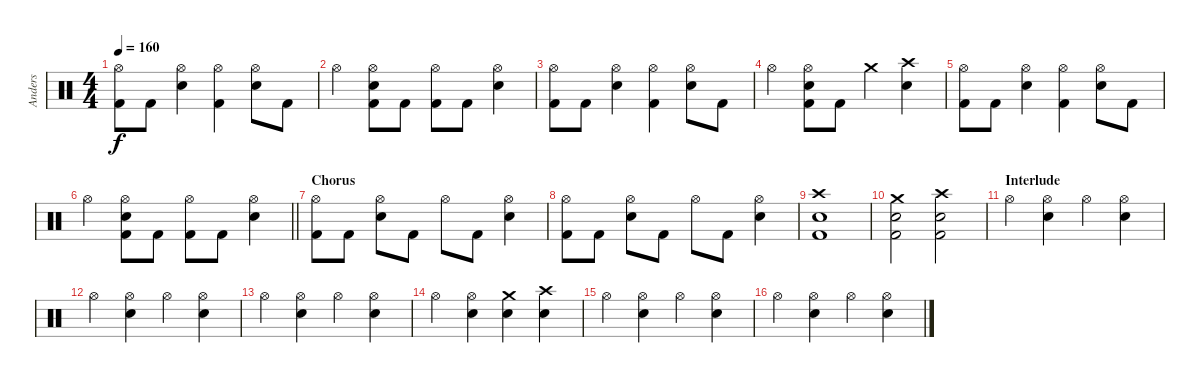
\track ("Anders" "Anders") {instrument percussion}
\staff {score}
\articulation defaults
\ts (4 4)
\tempo 160
\clef neutral
\ks c
("Hi-Hat (open)" "Kick (hit) 2").8{dy f} "Kick (hit) 2".8 ("Hi-Hat (open)" "Snare (hit) 2").4 ("Hi-Hat (open)" "Kick (hit) 2").4 ("Hi-Hat (open)" "Snare (hit) 2").8 "Kick (hit) 2".8 |
"Hi-Hat (open)".4 ("Hi-Hat (open)" "Snare (hit) 2" "Kick (hit) 2").8 "Kick (hit) 2".8 ("Hi-Hat (open)" "Kick (hit) 2").8 "Kick (hit) 2".8 ("Hi-Hat (open)" "Snare (hit) 2").4 |
("Hi-Hat (open)" "Kick (hit) 2").8 "Kick (hit) 2".8 ("Hi-Hat (open)" "Snare (hit) 2").4 ("Hi-Hat (open)" "Kick (hit) 2").4 ("Hi-Hat (open)" "Snare (hit) 2").8 "Kick (hit) 2".8 |
"Hi-Hat (open)".4 ("Hi-Hat (open)" "Snare (hit) 2" "Kick (hit) 2").8 "Kick (hit) 2".8 "Crash medium (hit)".4 ("Crash high (hit)" "Snare (hit) 2").4 |
("Hi-Hat (open)" "Kick (hit) 2").8 "Kick (hit) 2".8 ("Hi-Hat (open)" "Snare (hit) 2").4 ("Hi-Hat (open)" "Kick (hit) 2").4 ("Hi-Hat (open)" "Snare (hit) 2").8 "Kick (hit) 2".8 |
\barLineRight lightlight "Hi-Hat (open)".4
("Hi-Hat (open)" "Snare (hit) 2" "Kick (hit) 2").8 "Kick (hit) 2".8 ("Hi-Hat (open)" "Kick (hit) 2").8 "Kick (hit) 2".8 ("Hi-Hat (open)" "Snare (hit) 2").4 |
\section ("" "Chorus")
("Hi-Hat (open)" "Kick (hit) 2").8 "Kick (hit) 2".8 ("Hi-Hat (open)" "Snare (hit) 2").8 "Kick (hit) 2".8 "Hi-Hat (open)".8 "Kick (hit) 2".8 ("Hi-Hat (open)" "Snare (hit) 2").4 |
("Hi-Hat (open)" "Kick (hit) 2").8 "Kick (hit) 2".8 ("Hi-Hat (open)" "Snare (hit) 2").8 "Kick (hit) 2".8 "Hi-Hat (open)".8 "Kick (hit) 2".8 ("Hi-Hat (open)" "Snare (hit) 2").4 |
("Crash high (hit)" "Snare (hit) 2" "Kick (hit) 2").1 |
("Crash medium (hit)" "Snare (hit) 2" "Kick (hit) 2").2 ("Crash high (hit)" "Snare (hit) 2" "Kick (hit) 2").2 |
\section ("" "Interlude")
"Hi-Hat (open)".4 ("Hi-Hat (open)" "Snare (hit) 2").4 "Hi-Hat (open)".4 ("Hi-Hat (open)" "Snare (hit) 2").4 |
"Hi-Hat (open)".4 ("Hi-Hat (open)" "Snare (hit) 2").4 "Hi-Hat (open)".4 ("Hi-Hat (open)" "Snare (hit) 2").4 |
"Hi-Hat (open)".4 ("Hi-Hat (open)" "Snare (hit) 2").4 "Hi-Hat (open)".4 ("Hi-Hat (open)" "Snare (hit) 2").4 |
"Hi-Hat (open)".4 ("Hi-Hat (open)" "Snare (hit) 2").4 ("Crash medium (hit)" "Snare (hit) 2").4 ("Crash high (hit)" "Snare (hit) 2").4 |
"Hi-Hat (open)".4 ("Hi-Hat (open)" "Snare (hit) 2").4 "Hi-Hat (open)".4 ("Hi-Hat (open)" "Snare (hit) 2").4 |
"Hi-Hat (open)".4 ("Hi-Hat (open)" "Snare (hit) 2").4 "Hi-Hat (open)".4 ("Hi-Hat (open)" "Snare (hit) 2").4
